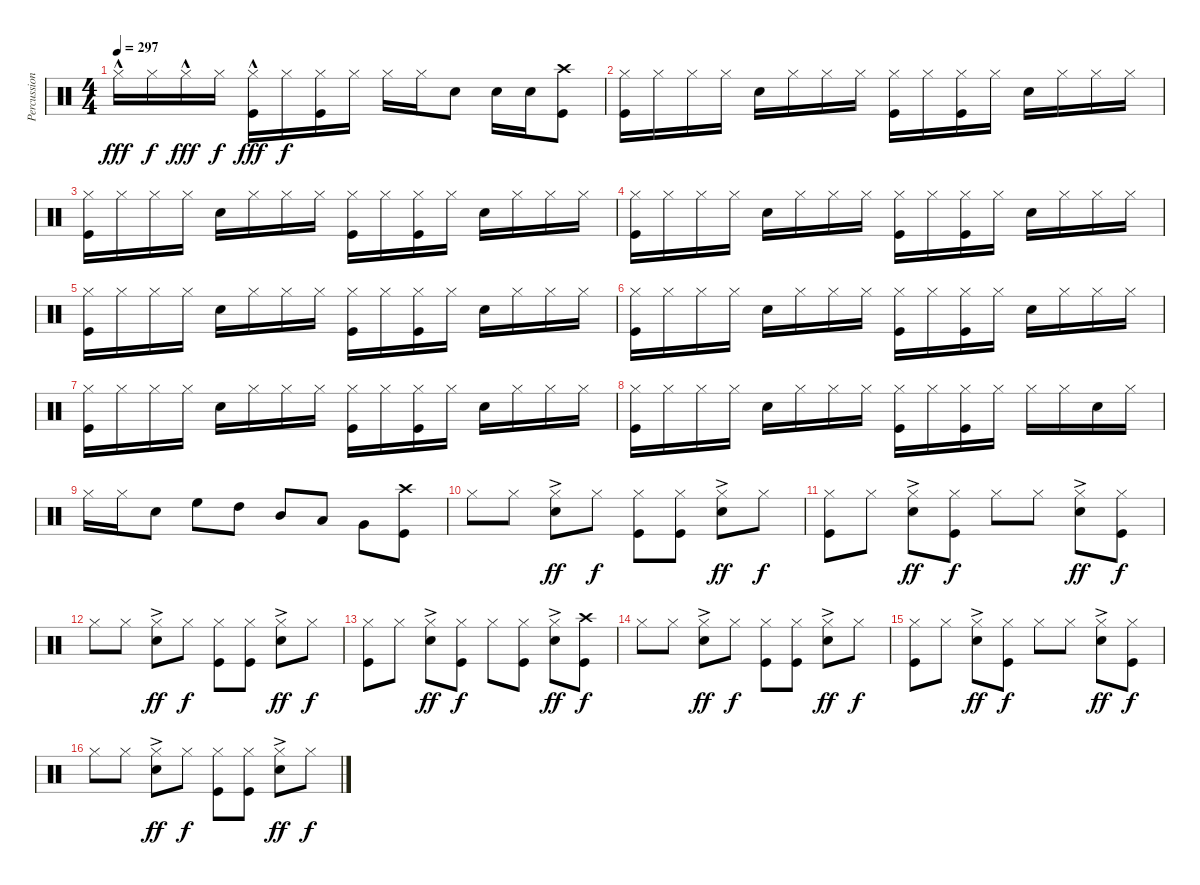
\track ("Percussioni" "Percussion") {instrument percussion}
\staff {score}
\articulation defaults
\ts (4 4)
\tempo 297
\clef neutral
\ks c "Hi-Hat (closed)"{hac}.16{dy fff} "Hi-Hat (closed)".16{dy f} "Hi-Hat (closed)"{hac}.16{dy fff} "Hi-Hat (closed)".16{dy f}
("Hi-Hat (closed)"{hac} "Kick (hit)").16{dy fff} "Hi-Hat (closed)".16{dy f} ("Hi-Hat (closed)" "Kick (hit)").16 "Hi-Hat (closed)".16 "Hi-Hat (closed)".16 "Hi-Hat (closed)".16 "Snare (hit) 2".8 "Snare (hit) 2".16 "Snare (hit) 2".16 ("Crash high (hit)" "Kick (hit)").8 |
("Hi-Hat (closed)" "Kick (hit)").16 "Hi-Hat (closed)".16 "Hi-Hat (closed)".16 "Hi-Hat (closed)".16 "Snare (hit) 2".16 "Hi-Hat (closed)".16 "Hi-Hat (closed)".16 "Hi-Hat (closed)".16 ("Hi-Hat (closed)" "Kick (hit)").16 "Hi-Hat (closed)".16 ("Hi-Hat (closed)" "Kick (hit)").16 "Hi-Hat (closed)".16 "Snare (hit) 2".16 "Hi-Hat (closed)".16 "Hi-Hat (closed)".16 "Hi-Hat (closed)".16 |
("Hi-Hat (closed)" "Kick (hit)").16 "Hi-Hat (closed)".16 "Hi-Hat (closed)".16 "Hi-Hat (closed)".16 "Snare (hit) 2".16 "Hi-Hat (closed)".16 "Hi-Hat (closed)".16 "Hi-Hat (closed)".16 ("Hi-Hat (closed)" "Kick (hit)").16 "Hi-Hat (closed)".16 ("Hi-Hat (closed)" "Kick (hit)").16 "Hi-Hat (closed)".16 "Snare (hit) 2".16 "Hi-Hat (closed)".16 "Hi-Hat (closed)".16 "Hi-Hat (closed)".16 |
("Hi-Hat (closed)" "Kick (hit)").16 "Hi-Hat (closed)".16 "Hi-Hat (closed)".16 "Hi-Hat (closed)".16 "Snare (hit) 2".16 "Hi-Hat (closed)".16 "Hi-Hat (closed)".16 "Hi-Hat (closed)".16 ("Hi-Hat (closed)" "Kick (hit)").16 "Hi-Hat (closed)".16 ("Hi-Hat (closed)" "Kick (hit)").16 "Hi-Hat (closed)".16 "Snare (hit) 2".16 "Hi-Hat (closed)".16 "Hi-Hat (closed)".16 "Hi-Hat (closed)".16 |
("Hi-Hat (closed)" "Kick (hit)").16 "Hi-Hat (closed)".16 "Hi-Hat (closed)".16 "Hi-Hat (closed)".16 "Snare (hit) 2".16 "Hi-Hat (closed)".16 "Hi-Hat (closed)".16 "Hi-Hat (closed)".16 ("Hi-Hat (closed)" "Kick (hit)").16 "Hi-Hat (closed)".16 ("Hi-Hat (closed)" "Kick (hit)").16 "Hi-Hat (closed)".16 "Snare (hit) 2".16 "Hi-Hat (closed)".16 "Hi-Hat (closed)".16 "Hi-Hat (closed)".16 |
("Hi-Hat (closed)" "Kick (hit)").16 "Hi-Hat (closed)".16 "Hi-Hat (closed)".16 "Hi-Hat (closed)".16 "Snare (hit) 2".16 "Hi-Hat (closed)".16 "Hi-Hat (closed)".16 "Hi-Hat (closed)".16 ("Hi-Hat (closed)" "Kick (hit)").16 "Hi-Hat (closed)".16 ("Hi-Hat (closed)" "Kick (hit)").16 "Hi-Hat (closed)".16 "Snare (hit) 2".16 "Hi-Hat (closed)".16 "Hi-Hat (closed)".16 "Hi-Hat (closed)".16 |
("Hi-Hat (closed)" "Kick (hit)").16 "Hi-Hat (closed)".16 "Hi-Hat (closed)".16 "Hi-Hat (closed)".16 "Snare (hit) 2".16 "Hi-Hat (closed)".16 "Hi-Hat (closed)".16 "Hi-Hat (closed)".16 ("Hi-Hat (closed)" "Kick (hit)").16 "Hi-Hat (closed)".16 ("Hi-Hat (closed)" "Kick (hit)").16 "Hi-Hat (closed)".16 "Snare (hit) 2".16 "Hi-Hat (closed)".16 "Hi-Hat (closed)".16 "Hi-Hat (closed)".16 |
("Hi-Hat (closed)" "Kick (hit)").16 "Hi-Hat (closed)".16 "Hi-Hat (closed)".16 "Hi-Hat (closed)".16 "Snare (hit) 2".16 "Hi-Hat (closed)".16 "Hi-Hat (closed)".16 "Hi-Hat (closed)".16 ("Hi-Hat (closed)" "Kick (hit)").16 "Hi-Hat (closed)".16 ("Hi-Hat (closed)" "Kick (hit)").16 "Hi-Hat (closed)".16 "Hi-Hat (closed)".16 "Hi-Hat (closed)".16 "Snare (hit) 2".16 "Hi-Hat (closed)".16 |
"Hi-Hat (closed)".16 "Hi-Hat (closed)".16 "Snare (hit) 2".8 "High Floor Tom (hit)".8 "High Tom (hit)".8 "Mid Tom (hit)".8 "Low Tom (hit)".8 "Very Low Tom (hit)".8 ("Kick (hit)" "Crash high (hit)").8 |
"Hi-Hat (closed)".8 "Hi-Hat (closed)".8 ("Hi-Hat (closed)"{ac} "Snare (hit) 2").8{dy ff} "Hi-Hat (closed)".8{dy f} ("Hi-Hat (closed)" "Kick (hit)").8 ("Hi-Hat (closed)" "Kick (hit)").8 ("Hi-Hat (closed)"{ac} "Snare (hit) 2").8{dy ff} "Hi-Hat (closed)".8{dy f} |
("Hi-Hat (closed)" "Kick (hit)").8 "Hi-Hat (closed)".8 ("Hi-Hat (closed)"{ac} "Snare (hit) 2").8{dy ff} ("Hi-Hat (closed)" "Kick (hit)").8{dy f} "Hi-Hat (closed)".8 "Hi-Hat (closed)".8 ("Hi-Hat (closed)"{ac} "Snare (hit) 2").8{dy ff} ("Hi-Hat (closed)" "Kick (hit)").8{dy f} |
"Hi-Hat (closed)".8 "Hi-Hat (closed)".8 ("Hi-Hat (closed)"{ac} "Snare (hit) 2").8{dy ff} "Hi-Hat (closed)".8{dy f} ("Hi-Hat (closed)" "Kick (hit)").8 ("Hi-Hat (closed)" "Kick (hit)").8 ("Hi-Hat (closed)"{ac} "Snare (hit) 2").8{dy ff} "Hi-Hat (closed)".8{dy f} |
("Hi-Hat (closed)" "Kick (hit)").8 "Hi-Hat (closed)".8 ("Hi-Hat (closed)"{ac} "Snare (hit) 2").8{dy ff} ("Hi-Hat (closed)" "Kick (hit)").8{dy f} "Hi-Hat (closed)".8 ("Hi-Hat (closed)" "Kick (hit)").8 ("Hi-Hat (closed)"{ac} "Snare (hit) 2").8{dy ff} ("Crash high (hit)" "Kick (hit)").8{dy f} |
"Hi-Hat (closed)".8 "Hi-Hat (closed)".8 ("Hi-Hat (closed)"{ac} "Snare (hit) 2").8{dy ff} "Hi-Hat (closed)".8{dy f} ("Hi-Hat (closed)" "Kick (hit)").8 ("Hi-Hat (closed)" "Kick (hit)").8 ("Hi-Hat (closed)"{ac} "Snare (hit) 2").8{dy ff} "Hi-Hat (closed)".8{dy f} |
("Hi-Hat (closed)" "Kick (hit)").8 "Hi-Hat (closed)".8 ("Hi-Hat (closed)"{ac} "Snare (hit) 2").8{dy ff} ("Hi-Hat (closed)" "Kick (hit)").8{dy f} "Hi-Hat (closed)".8 "Hi-Hat (closed)".8 ("Hi-Hat (closed)"{ac} "Snare (hit) 2").8{dy ff} ("Hi-Hat (closed)" "Kick (hit)").8{dy f} |
"Hi-Hat (closed)".8 "Hi-Hat (closed)".8 ("Hi-Hat (closed)"{ac} "Snare (hit) 2").8{dy ff} "Hi-Hat (closed)".8{dy f} ("Hi-Hat (closed)" "Kick (hit)").8 ("Hi-Hat (closed)" "Kick (hit)").8 ("Hi-Hat (closed)"{ac} "Snare (hit) 2").8{dy ff} "Hi-Hat (closed)".8{dy f}
